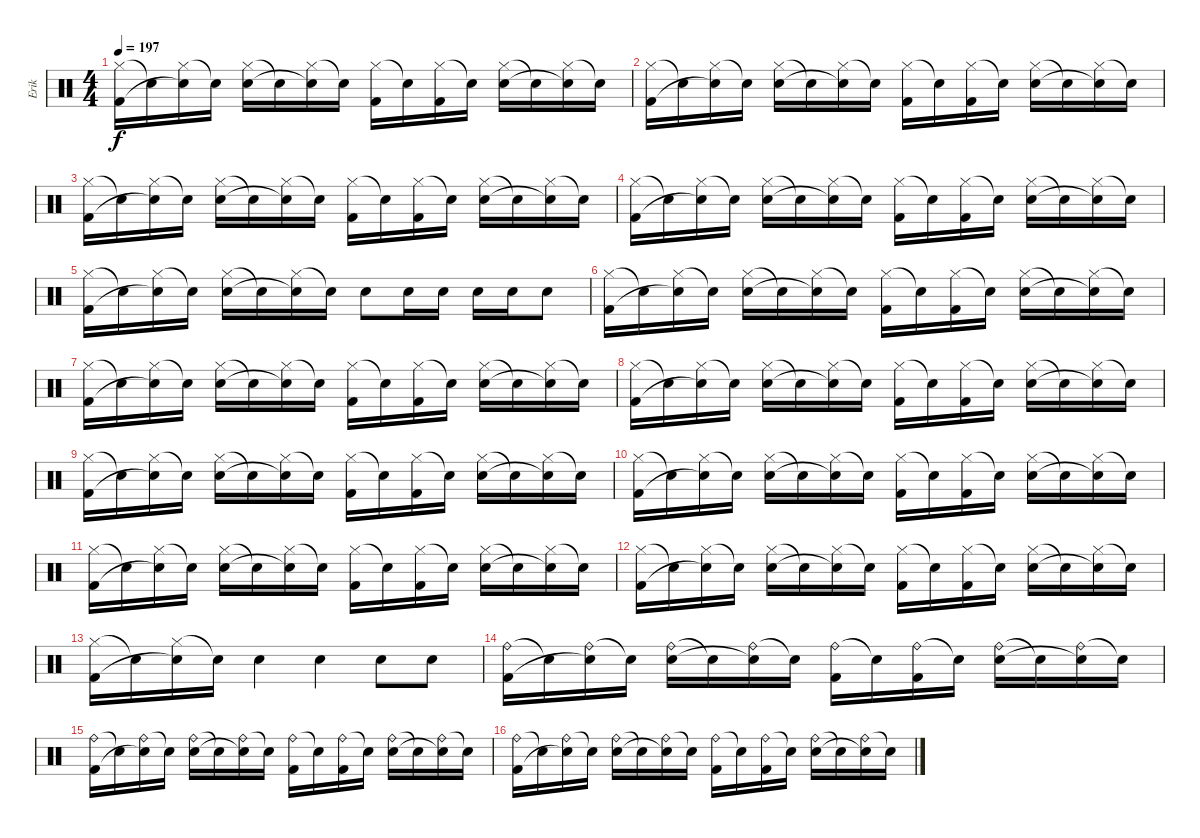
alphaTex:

\track ("Erik" "Erik") {instrument percussion}
\staff {score}
\articulation defaults
\ts (4 4)
\tempo 197
\clef neutral
\ks c
("Hi-Hat (closed)" "Kick (hit) 2").16{dy f} "Snare (hit)"{t}.16 ("Hi-Hat (closed)" "Snare (hit)"{t}).16 "Snare (hit)"{t}.16 ("Hi-Hat (closed)" "Electric Snare (hit)").16 "Snare (hit)"{t}.16 ("Hi-Hat (closed)" "Snare (hit)"{t}).16 "Snare (hit)"{t}.16 ("Hi-Hat (closed)" "Kick (hit) 2").16 "Snare (hit)"{t}.16 ("Hi-Hat (closed)" "Kick (hit) 2").16 "Snare (hit)"{t}.16 ("Hi-Hat (closed)" "Electric Snare (hit)").16 "Snare (hit)"{t}.16 ("Hi-Hat (closed)" "Snare (hit)"{t}).16 "Snare (hit)"{t}.16 |
("Hi-Hat (closed)" "Kick (hit) 2").16 "Snare (hit)"{t}.16 ("Hi-Hat (closed)" "Snare (hit)"{t}).16 "Snare (hit)"{t}.16 ("Hi-Hat (closed)" "Electric Snare (hit)").16 "Snare (hit)"{t}.16 ("Hi-Hat (closed)" "Snare (hit)"{t}).16 "Snare (hit)"{t}.16 ("Hi-Hat (closed)" "Kick (hit) 2").16 "Snare (hit)"{t}.16 ("Hi-Hat (closed)" "Kick (hit) 2").16 "Snare (hit)"{t}.16 ("Hi-Hat (closed)" "Electric Snare (hit)").16 "Snare (hit)"{t}.16 ("Hi-Hat (closed)" "Snare (hit)"{t}).16 "Snare (hit)"{t}.16 |
("Hi-Hat (closed)" "Kick (hit) 2").16 "Snare (hit)"{t}.16 ("Hi-Hat (closed)" "Snare (hit)"{t}).16 "Snare (hit)"{t}.16 ("Hi-Hat (closed)" "Electric Snare (hit)").16 "Snare (hit)"{t}.16 ("Hi-Hat (closed)" "Snare (hit)"{t}).16 "Snare (hit)"{t}.16 ("Hi-Hat (closed)" "Kick (hit) 2").16 "Snare (hit)"{t}.16 ("Hi-Hat (closed)" "Kick (hit) 2").16 "Snare (hit)"{t}.16 ("Hi-Hat (closed)" "Electric Snare (hit)").16 "Snare (hit)"{t}.16 ("Hi-Hat (closed)" "Snare (hit)"{t}).16 "Snare (hit)"{t}.16 |
("Hi-Hat (closed)" "Kick (hit) 2").16 "Snare (hit)"{t}.16 ("Hi-Hat (closed)" "Snare (hit)"{t}).16 "Snare (hit)"{t}.16 ("Hi-Hat (closed)" "Electric Snare (hit)").16 "Snare (hit)"{t}.16 ("Hi-Hat (closed)" "Snare (hit)"{t}).16 "Snare (hit)"{t}.16 ("Hi-Hat (closed)" "Kick (hit) 2").16 "Snare (hit)"{t}.16 ("Hi-Hat (closed)" "Kick (hit) 2").16 "Snare (hit)"{t}.16 ("Hi-Hat (closed)" "Electric Snare (hit)").16 "Snare (hit)"{t}.16 ("Hi-Hat (closed)" "Snare (hit)"{t}).16 "Snare (hit)"{t}.16 |
("Hi-Hat (closed)" "Kick (hit) 2").16 "Snare (hit)"{t}.16 ("Hi-Hat (closed)" "Snare (hit)"{t}).16 "Snare (hit)"{t}.16 ("Hi-Hat (closed)" "Electric Snare (hit)").16 "Snare (hit)"{t}.16 ("Hi-Hat (closed)" "Snare (hit)"{t}).16 "Snare (hit)"{t}.16 "Electric Snare (hit)".8 "Electric Snare (hit)".16 "Electric Snare (hit)".16 "Electric Snare (hit)".16 "Electric Snare (hit)".16 "Electric Snare (hit)".8 |
("Hi-Hat (closed)" "Kick (hit) 2").16 "Snare (hit)"{t}.16 ("Hi-Hat (closed)" "Snare (hit)"{t}).16 "Snare (hit)"{t}.16 ("Hi-Hat (closed)" "Electric Snare (hit)").16 "Snare (hit)"{t}.16 ("Hi-Hat (closed)" "Snare (hit)"{t}).16 "Snare (hit)"{t}.16 ("Hi-Hat (closed)" "Kick (hit) 2").16 "Snare (hit)"{t}.16 ("Hi-Hat (closed)" "Kick (hit) 2").16 "Snare (hit)"{t}.16 ("Hi-Hat (closed)" "Electric Snare (hit)").16 "Snare (hit)"{t}.16 ("Hi-Hat (closed)" "Snare (hit)"{t}).16 "Snare (hit)"{t}.16 |
("Hi-Hat (closed)" "Kick (hit) 2").16 "Snare (hit)"{t}.16 ("Hi-Hat (closed)" "Snare (hit)"{t}).16 "Snare (hit)"{t}.16 ("Hi-Hat (closed)" "Electric Snare (hit)").16 "Snare (hit)"{t}.16 ("Hi-Hat (closed)" "Snare (hit)"{t}).16 "Snare (hit)"{t}.16 ("Hi-Hat (closed)" "Kick (hit) 2").16 "Snare (hit)"{t}.16 ("Hi-Hat (closed)" "Kick (hit) 2").16 "Snare (hit)"{t}.16 ("Hi-Hat (closed)" "Electric Snare (hit)").16 "Snare (hit)"{t}.16 ("Hi-Hat (closed)" "Snare (hit)"{t}).16 "Snare (hit)"{t}.16 |
("Hi-Hat (closed)" "Kick (hit) 2").16 "Snare (hit)"{t}.16 ("Hi-Hat (closed)" "Snare (hit)"{t}).16 "Snare (hit)"{t}.16 ("Hi-Hat (closed)" "Electric Snare (hit)").16 "Snare (hit)"{t}.16 ("Hi-Hat (closed)" "Snare (hit)"{t}).16 "Snare (hit)"{t}.16 ("Hi-Hat (closed)" "Kick (hit) 2").16 "Snare (hit)"{t}.16 ("Hi-Hat (closed)" "Kick (hit) 2").16 "Snare (hit)"{t}.16 ("Hi-Hat (closed)" "Electric Snare (hit)").16 "Snare (hit)"{t}.16 ("Hi-Hat (closed)" "Snare (hit)"{t}).16 "Snare (hit)"{t}.16 |
("Hi-Hat (closed)" "Kick (hit) 2").16 "Snare (hit)"{t}.16 ("Hi-Hat (closed)" "Snare (hit)"{t}).16 "Snare (hit)"{t}.16 ("Hi-Hat (closed)" "Electric Snare (hit)").16 "Snare (hit)"{t}.16 ("Hi-Hat (closed)" "Snare (hit)"{t}).16 "Snare (hit)"{t}.16 ("Hi-Hat (closed)" "Kick (hit) 2").16 "Snare (hit)"{t}.16 ("Hi-Hat (closed)" "Kick (hit) 2").16 "Snare (hit)"{t}.16 ("Hi-Hat (closed)" "Electric Snare (hit)").16 "Snare (hit)"{t}.16 ("Hi-Hat (closed)" "Snare (hit)"{t}).16 "Snare (hit)"{t}.16 |
("Hi-Hat (closed)" "Kick (hit) 2").16 "Snare (hit)"{t}.16 ("Hi-Hat (closed)" "Snare (hit)"{t}).16 "Snare (hit)"{t}.16 ("Hi-Hat (closed)" "Electric Snare (hit)").16 "Snare (hit)"{t}.16 ("Hi-Hat (closed)" "Snare (hit)"{t}).16 "Snare (hit)"{t}.16 ("Hi-Hat (closed)" "Kick (hit) 2").16 "Snare (hit)"{t}.16 ("Hi-Hat (closed)" "Kick (hit) 2").16 "Snare (hit)"{t}.16 ("Hi-Hat (closed)" "Electric Snare (hit)").16 "Snare (hit)"{t}.16 ("Hi-Hat (closed)" "Snare (hit)"{t}).16 "Snare (hit)"{t}.16 |
("Hi-Hat (closed)" "Kick (hit) 2").16 "Snare (hit)"{t}.16 ("Hi-Hat (closed)" "Snare (hit)"{t}).16 "Snare (hit)"{t}.16 ("Hi-Hat (closed)" "Electric Snare (hit)").16 "Snare (hit)"{t}.16 ("Hi-Hat (closed)" "Snare (hit)"{t}).16 "Snare (hit)"{t}.16 ("Hi-Hat (closed)" "Kick (hit) 2").16 "Snare (hit)"{t}.16 ("Hi-Hat (closed)" "Kick (hit) 2").16 "Snare (hit)"{t}.16 ("Hi-Hat (closed)" "Electric Snare (hit)").16 "Snare (hit)"{t}.16 ("Hi-Hat (closed)" "Snare (hit)"{t}).16 "Snare (hit)"{t}.16 |
("Hi-Hat (closed)" "Kick (hit) 2").16 "Snare (hit)"{t}.16 ("Hi-Hat (closed)" "Snare (hit)"{t}).16 "Snare (hit)"{t}.16 ("Hi-Hat (closed)" "Electric Snare (hit)").16 "Snare (hit)"{t}.16 ("Hi-Hat (closed)" "Snare (hit)"{t}).16 "Snare (hit)"{t}.16 ("Hi-Hat (closed)" "Kick (hit) 2").16 "Snare (hit)"{t}.16 ("Hi-Hat (closed)" "Kick (hit) 2").16 "Snare (hit)"{t}.16 ("Hi-Hat (closed)" "Electric Snare (hit)").16 "Snare (hit)"{t}.16 ("Hi-Hat (closed)" "Snare (hit)"{t}).16 "Snare (hit)"{t}.16 |
("Hi-Hat (closed)" "Kick (hit) 2").16 "Snare (hit)"{t}.16 ("Hi-Hat (closed)" "Snare (hit)"{t}).16 "Snare (hit)"{t}.16 "Electric Snare (hit)".4 "Electric Snare (hit)".4 "Electric Snare (hit)".8 "Electric Snare (hit)".8 |
("Ride (bell)" "Kick (hit) 2").16 "Snare (hit)"{t}.16 ("Ride (bell)" "Snare (hit)"{t}).16 "Snare (hit)"{t}.16 ("Ride (bell)" "Electric Snare (hit)").16 "Snare (hit)"{t}.16 ("Ride (bell)" "Snare (hit)"{t}).16 "Snare (hit)"{t}.16 ("Ride (bell)" "Kick (hit) 2").16 "Snare (hit)"{t}.16 ("Ride (bell)" "Kick (hit) 2").16 "Snare (hit)"{t}.16 ("Ride (bell)" "Electric Snare (hit)").16 "Snare (hit)"{t}.16 ("Ride (bell)" "Snare (hit)"{t}).16 "Snare (hit)"{t}.16 |
("Ride (bell)" "Kick (hit) 2").16 "Snare (hit)"{t}.16 ("Ride (bell)" "Snare (hit)"{t}).16 "Snare (hit)"{t}.16 ("Ride (bell)" "Electric Snare (hit)").16 "Snare (hit)"{t}.16 ("Ride (bell)" "Snare (hit)"{t}).16 "Snare (hit)"{t}.16 ("Ride (bell)" "Kick (hit) 2").16 "Snare (hit)"{t}.16 ("Ride (bell)" "Kick (hit) 2").16 "Snare (hit)"{t}.16 ("Ride (bell)" "Electric Snare (hit)").16 "Snare (hit)"{t}.16 ("Ride (bell)" "Snare (hit)"{t}).16 "Snare (hit)"{t}.16 |
("Ride (bell)" "Kick (hit) 2").16 "Snare (hit)"{t}.16 ("Ride (bell)" "Snare (hit)"{t}).16 "Snare (hit)"{t}.16 ("Ride (bell)" "Electric Snare (hit)").16 "Snare (hit)"{t}.16 ("Ride (bell)" "Snare (hit)"{t}).16 "Snare (hit)"{t}.16 ("Ride (bell)" "Kick (hit) 2").16 "Snare (hit)"{t}.16 ("Ride (bell)" "Kick (hit) 2").16 "Snare (hit)"{t}.16 ("Ride (bell)" "Electric Snare (hit)").16 "Snare (hit)"{t}.16 ("Ride (bell)" "Snare (hit)"{t}).16 "Snare (hit)"{t}.16
